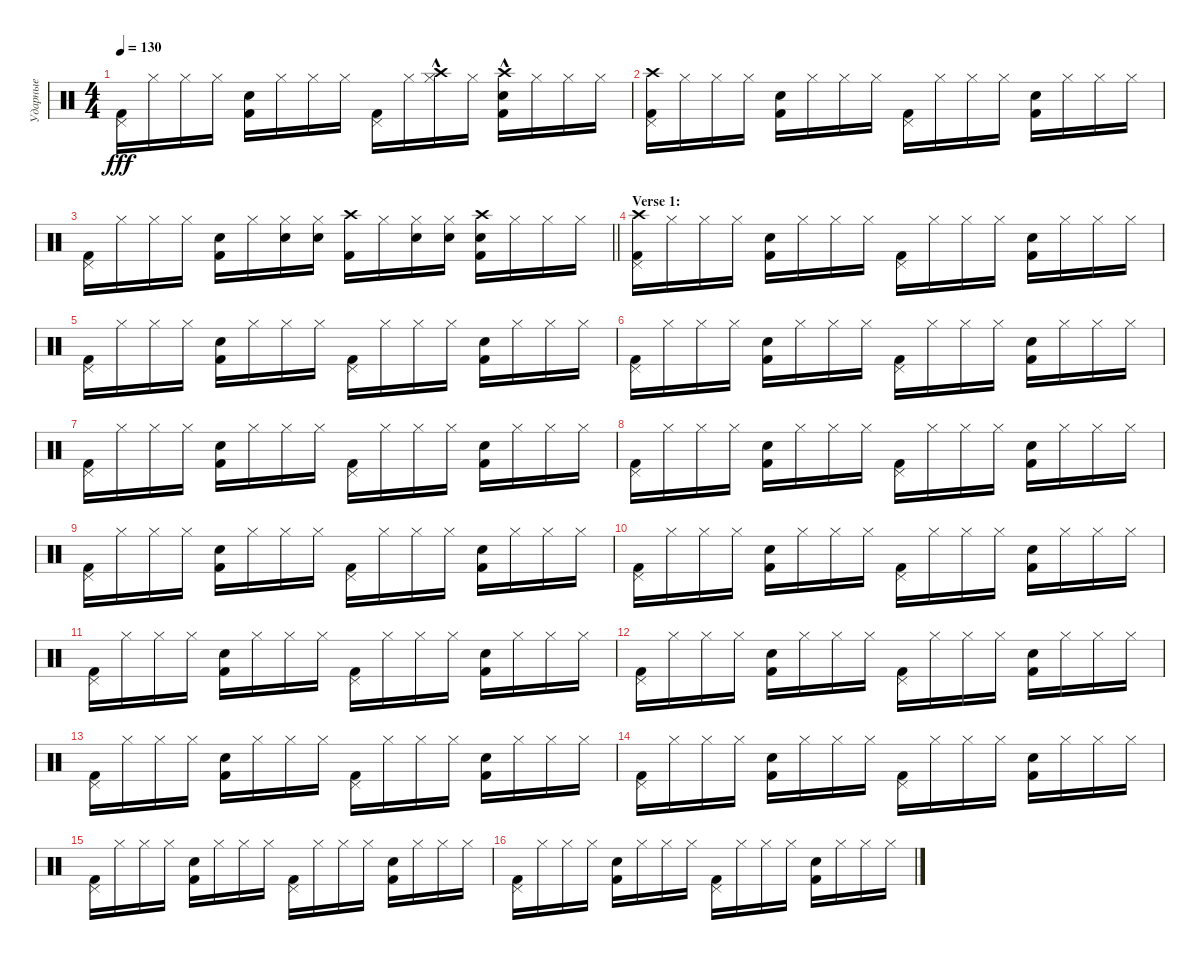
\track ("Ударные" "Ударные") {instrument percussion}
\staff {score}
\articulation defaults
\ts (4 4)
\tempo 130
\clef neutral
\ks c
("Pedal Hi-Hat (hit)" "Kick (hit) 2").16{dy fff} "Hi-Hat (closed)".16 "Hi-Hat (closed)".16 "Hi-Hat (closed)".16 ("Snare (hit) 2" "Kick (hit) 2").16 "Hi-Hat (closed)".16 "Hi-Hat (closed)".16 "Hi-Hat (closed)".16 ("Pedal Hi-Hat (hit)" "Kick (hit) 2").16 "Hi-Hat (closed)".16 ("Hi-Hat (closed)"{hac} "Crash high (hit)").16 "Hi-Hat (closed)".16 ("Crash high (hit)"{hac} "Snare (hit) 2" "Kick (hit) 2").16 "Hi-Hat (closed)".16 "Hi-Hat (closed)".16 "Hi-Hat (closed)".16 |
("Pedal Hi-Hat (hit)" "Crash high (hit)" "Kick (hit) 2").16 "Hi-Hat (closed)".16 "Hi-Hat (closed)".16 "Hi-Hat (closed)".16 ("Snare (hit) 2" "Kick (hit) 2").16 "Hi-Hat (closed)".16 "Hi-Hat (closed)".16 "Hi-Hat (closed)".16 ("Pedal Hi-Hat (hit)" "Kick (hit) 2").16 "Hi-Hat (closed)".16 "Hi-Hat (closed)".16 "Hi-Hat (closed)".16 ("Snare (hit) 2" "Kick (hit) 2").16 "Hi-Hat (closed)".16 "Hi-Hat (closed)".16 "Hi-Hat (closed)".16 |
\barLineRight lightlight
("Pedal Hi-Hat (hit)" "Kick (hit) 2").16 "Hi-Hat (closed)".16 "Hi-Hat (closed)".16 "Hi-Hat (closed)".16 ("Snare (hit) 2" "Kick (hit) 2").16 "Hi-Hat (closed)".16 ("Hi-Hat (closed)" "Snare (hit) 2").16 ("Hi-Hat (closed)" "Snare (hit) 2").16 ("Crash high (hit)" "Kick (hit) 2").16 "Hi-Hat (closed)".16 ("Hi-Hat (closed)" "Snare (hit) 2").16 ("Hi-Hat (closed)" "Snare (hit) 2").16 ("Snare (hit) 2" "Crash high (hit)" "Kick (hit) 2").16 "Hi-Hat (closed)".16 "Hi-Hat (closed)".16 "Hi-Hat (closed)".16 |
\section ("" "Verse 1:")
("Pedal Hi-Hat (hit)" "Crash high (hit)" "Kick (hit) 2").16 "Hi-Hat (closed)".16 "Hi-Hat (closed)".16 "Hi-Hat (closed)".16 ("Snare (hit) 2" "Kick (hit) 2").16 "Hi-Hat (closed)".16 "Hi-Hat (closed)".16 "Hi-Hat (closed)".16 ("Pedal Hi-Hat (hit)" "Kick (hit) 2").16 "Hi-Hat (closed)".16 "Hi-Hat (closed)".16 "Hi-Hat (closed)".16 ("Snare (hit) 2" "Kick (hit) 2").16 "Hi-Hat (closed)".16 "Hi-Hat (closed)".16 "Hi-Hat (closed)".16 |
("Pedal Hi-Hat (hit)" "Kick (hit) 2").16 "Hi-Hat (closed)".16 "Hi-Hat (closed)".16 "Hi-Hat (closed)".16 ("Snare (hit) 2" "Kick (hit) 2").16 "Hi-Hat (closed)".16 "Hi-Hat (closed)".16 "Hi-Hat (closed)".16 ("Pedal Hi-Hat (hit)" "Kick (hit) 2").16 "Hi-Hat (closed)".16 "Hi-Hat (closed)".16 "Hi-Hat (closed)".16 ("Snare (hit) 2" "Kick (hit) 2").16 "Hi-Hat (closed)".16 "Hi-Hat (closed)".16 "Hi-Hat (closed)".16 |
("Pedal Hi-Hat (hit)" "Kick (hit) 2").16 "Hi-Hat (closed)".16 "Hi-Hat (closed)".16 "Hi-Hat (closed)".16 ("Snare (hit) 2" "Kick (hit) 2").16 "Hi-Hat (closed)".16 "Hi-Hat (closed)".16 "Hi-Hat (closed)".16 ("Pedal Hi-Hat (hit)" "Kick (hit) 2").16 "Hi-Hat (closed)".16 "Hi-Hat (closed)".16 "Hi-Hat (closed)".16 ("Snare (hit) 2" "Kick (hit) 2").16 "Hi-Hat (closed)".16 "Hi-Hat (closed)".16 "Hi-Hat (closed)".16 |
("Pedal Hi-Hat (hit)" "Kick (hit) 2").16 "Hi-Hat (closed)".16 "Hi-Hat (closed)".16 "Hi-Hat (closed)".16 ("Snare (hit) 2" "Kick (hit) 2").16 "Hi-Hat (closed)".16 "Hi-Hat (closed)".16 "Hi-Hat (closed)".16 ("Pedal Hi-Hat (hit)" "Kick (hit) 2").16 "Hi-Hat (closed)".16 "Hi-Hat (closed)".16 "Hi-Hat (closed)".16 ("Snare (hit) 2" "Kick (hit) 2").16 "Hi-Hat (closed)".16 "Hi-Hat (closed)".16 "Hi-Hat (closed)".16 |
("Pedal Hi-Hat (hit)" "Kick (hit) 2").16 "Hi-Hat (closed)".16 "Hi-Hat (closed)".16 "Hi-Hat (closed)".16 ("Snare (hit) 2" "Kick (hit) 2").16 "Hi-Hat (closed)".16 "Hi-Hat (closed)".16 "Hi-Hat (closed)".16 ("Pedal Hi-Hat (hit)" "Kick (hit) 2").16 "Hi-Hat (closed)".16 "Hi-Hat (closed)".16 "Hi-Hat (closed)".16 ("Snare (hit) 2" "Kick (hit) 2").16 "Hi-Hat (closed)".16 "Hi-Hat (closed)".16 "Hi-Hat (closed)".16 |
("Pedal Hi-Hat (hit)" "Kick (hit) 2").16 "Hi-Hat (closed)".16 "Hi-Hat (closed)".16 "Hi-Hat (closed)".16 ("Snare (hit) 2" "Kick (hit) 2").16 "Hi-Hat (closed)".16 "Hi-Hat (closed)".16 "Hi-Hat (closed)".16 ("Pedal Hi-Hat (hit)" "Kick (hit) 2").16 "Hi-Hat (closed)".16 "Hi-Hat (closed)".16 "Hi-Hat (closed)".16 ("Snare (hit) 2" "Kick (hit) 2").16 "Hi-Hat (closed)".16 "Hi-Hat (closed)".16 "Hi-Hat (closed)".16 |
("Pedal Hi-Hat (hit)" "Kick (hit) 2").16 "Hi-Hat (closed)".16 "Hi-Hat (closed)".16 "Hi-Hat (closed)".16 ("Snare (hit) 2" "Kick (hit) 2").16 "Hi-Hat (closed)".16 "Hi-Hat (closed)".16 "Hi-Hat (closed)".16 ("Pedal Hi-Hat (hit)" "Kick (hit) 2").16 "Hi-Hat (closed)".16 "Hi-Hat (closed)".16 "Hi-Hat (closed)".16 ("Snare (hit) 2" "Kick (hit) 2").16 "Hi-Hat (closed)".16 "Hi-Hat (closed)".16 "Hi-Hat (closed)".16 |
("Pedal Hi-Hat (hit)" "Kick (hit) 2").16 "Hi-Hat (closed)".16 "Hi-Hat (closed)".16 "Hi-Hat (closed)".16 ("Snare (hit) 2" "Kick (hit) 2").16 "Hi-Hat (closed)".16 "Hi-Hat (closed)".16 "Hi-Hat (closed)".16 ("Pedal Hi-Hat (hit)" "Kick (hit) 2").16 "Hi-Hat (closed)".16 "Hi-Hat (closed)".16 "Hi-Hat (closed)".16 ("Snare (hit) 2" "Kick (hit) 2").16 "Hi-Hat (closed)".16 "Hi-Hat (closed)".16 "Hi-Hat (closed)".16 |
("Pedal Hi-Hat (hit)" "Kick (hit) 2").16 "Hi-Hat (closed)".16 "Hi-Hat (closed)".16 "Hi-Hat (closed)".16 ("Snare (hit) 2" "Kick (hit) 2").16 "Hi-Hat (closed)".16 "Hi-Hat (closed)".16 "Hi-Hat (closed)".16 ("Pedal Hi-Hat (hit)" "Kick (hit) 2").16 "Hi-Hat (closed)".16 "Hi-Hat (closed)".16 "Hi-Hat (closed)".16 ("Snare (hit) 2" "Kick (hit) 2").16 "Hi-Hat (closed)".16 "Hi-Hat (closed)".16 "Hi-Hat (closed)".16 |
("Pedal Hi-Hat (hit)" "Kick (hit) 2").16 "Hi-Hat (closed)".16 "Hi-Hat (closed)".16 "Hi-Hat (closed)".16 ("Snare (hit) 2" "Kick (hit) 2").16 "Hi-Hat (closed)".16 "Hi-Hat (closed)".16 "Hi-Hat (closed)".16 ("Pedal Hi-Hat (hit)" "Kick (hit) 2").16 "Hi-Hat (closed)".16 "Hi-Hat (closed)".16 "Hi-Hat (closed)".16 ("Snare (hit) 2" "Kick (hit) 2").16 "Hi-Hat (closed)".16 "Hi-Hat (closed)".16 "Hi-Hat (closed)".16 |
("Pedal Hi-Hat (hit)" "Kick (hit) 2").16 "Hi-Hat (closed)".16 "Hi-Hat (closed)".16 "Hi-Hat (closed)".16 ("Snare (hit) 2" "Kick (hit) 2").16 "Hi-Hat (closed)".16 "Hi-Hat (closed)".16 "Hi-Hat (closed)".16 ("Pedal Hi-Hat (hit)" "Kick (hit) 2").16 "Hi-Hat (closed)".16 "Hi-Hat (closed)".16 "Hi-Hat (closed)".16 ("Snare (hit) 2" "Kick (hit) 2").16 "Hi-Hat (closed)".16 "Hi-Hat (closed)".16 "Hi-Hat (closed)".16 |
("Pedal Hi-Hat (hit)" "Kick (hit) 2").16 "Hi-Hat (closed)".16 "Hi-Hat (closed)".16 "Hi-Hat (closed)".16 ("Snare (hit) 2" "Kick (hit) 2").16 "Hi-Hat (closed)".16 "Hi-Hat (closed)".16 "Hi-Hat (closed)".16 ("Pedal Hi-Hat (hit)" "Kick (hit) 2").16 "Hi-Hat (closed)".16 "Hi-Hat (closed)".16 "Hi-Hat (closed)".16 ("Snare (hit) 2" "Kick (hit) 2").16 "Hi-Hat (closed)".16 "Hi-Hat (closed)".16 "Hi-Hat (closed)".16 |
("Pedal Hi-Hat (hit)" "Kick (hit) 2").16 "Hi-Hat (closed)".16 "Hi-Hat (closed)".16 "Hi-Hat (closed)".16 ("Snare (hit) 2" "Kick (hit) 2").16 "Hi-Hat (closed)".16 "Hi-Hat (closed)".16 "Hi-Hat (closed)".16 ("Pedal Hi-Hat (hit)" "Kick (hit) 2").16 "Hi-Hat (closed)".16 "Hi-Hat (closed)".16 "Hi-Hat (closed)".16 ("Snare (hit) 2" "Kick (hit) 2").16 "Hi-Hat (closed)".16 "Hi-Hat (closed)".16 "Hi-Hat (closed)".16
